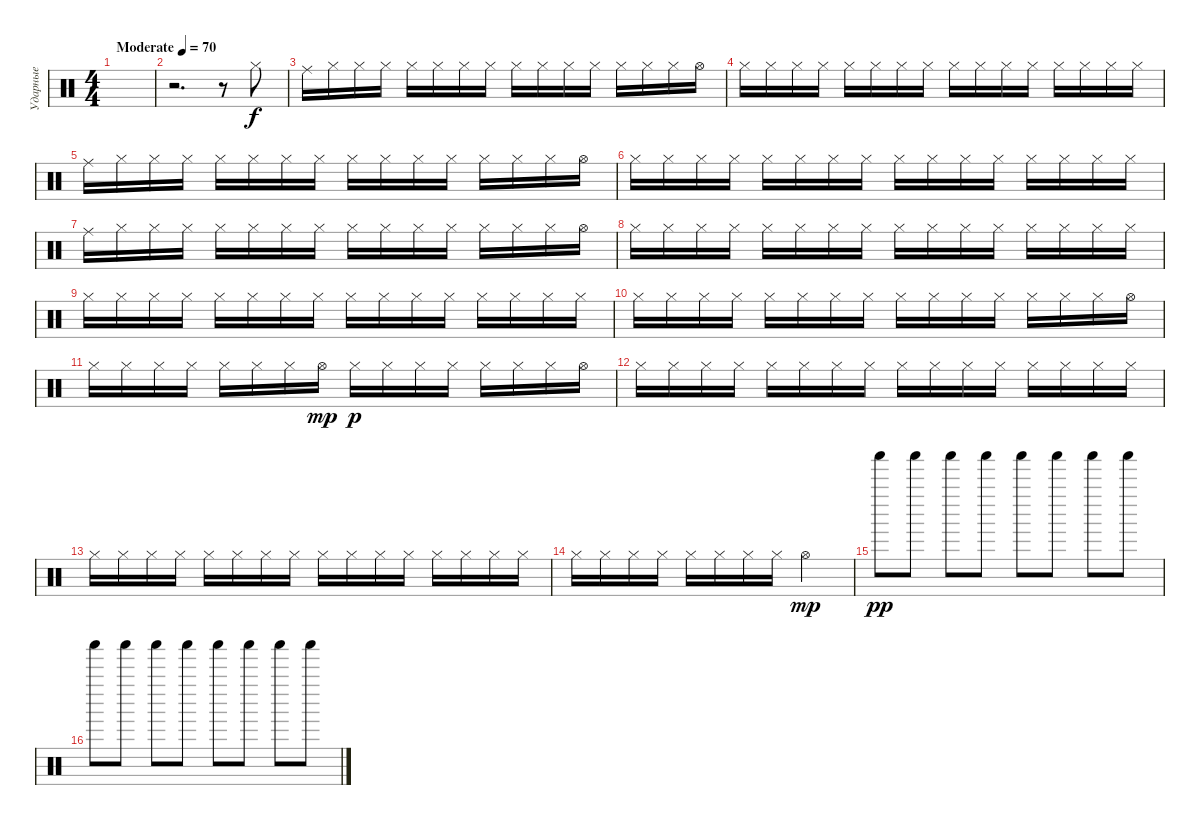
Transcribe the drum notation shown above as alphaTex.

\track ("Ударные" "Ударные") {instrument percussion}
\staff {score}
\articulation defaults
\ts (4 4)
\tempo (70 "Moderate")
\clef neutral
\ks c
|
r.2{d} r.8 "Hi-Hat (closed)".8 |
"Ride (middle)".16 "Hi-Hat (closed)".16 "Hi-Hat (closed)".16 "Hi-Hat (closed)".16 "Hi-Hat (closed)".16 "Hi-Hat (closed)".16 "Hi-Hat (closed)".16 "Hi-Hat (closed)".16 "Hi-Hat (closed)".16 "Hi-Hat (closed)".16 "Hi-Hat (closed)".16 "Hi-Hat (closed)".16 "Hi-Hat (closed)".16 "Hi-Hat (closed)".16 "Hi-Hat (closed)".16 "Hi-Hat (open)".16 |
"Hi-Hat (closed)".16 "Hi-Hat (closed)".16 "Hi-Hat (closed)".16 "Hi-Hat (closed)".16 "Hi-Hat (closed)".16 "Hi-Hat (closed)".16 "Hi-Hat (closed)".16 "Hi-Hat (closed)".16 "Hi-Hat (closed)".16 "Hi-Hat (closed)".16 "Hi-Hat (closed)".16 "Hi-Hat (closed)".16 "Hi-Hat (closed)".16 "Hi-Hat (closed)".16 "Hi-Hat (closed)".16 "Hi-Hat (closed)".16 |
"Ride (middle)".16 "Hi-Hat (closed)".16 "Hi-Hat (closed)".16 "Hi-Hat (closed)".16 "Hi-Hat (closed)".16 "Hi-Hat (closed)".16 "Hi-Hat (closed)".16 "Hi-Hat (closed)".16 "Hi-Hat (closed)".16 "Hi-Hat (closed)".16 "Hi-Hat (closed)".16 "Hi-Hat (closed)".16 "Hi-Hat (closed)".16 "Hi-Hat (closed)".16 "Hi-Hat (closed)".16 "Hi-Hat (open)".16 |
"Hi-Hat (closed)".16 "Hi-Hat (closed)".16 "Hi-Hat (closed)".16 "Hi-Hat (closed)".16 "Hi-Hat (closed)".16 "Hi-Hat (closed)".16 "Hi-Hat (closed)".16 "Hi-Hat (closed)".16 "Hi-Hat (closed)".16 "Hi-Hat (closed)".16 "Hi-Hat (closed)".16 "Hi-Hat (closed)".16 "Hi-Hat (closed)".16 "Hi-Hat (closed)".16 "Hi-Hat (closed)".16 "Hi-Hat (closed)".16 |
"Ride (middle)".16 "Hi-Hat (closed)".16 "Hi-Hat (closed)".16 "Hi-Hat (closed)".16 "Hi-Hat (closed)".16 "Hi-Hat (closed)".16 "Hi-Hat (closed)".16 "Hi-Hat (closed)".16 "Hi-Hat (closed)".16 "Hi-Hat (closed)".16 "Hi-Hat (closed)".16 "Hi-Hat (closed)".16 "Hi-Hat (closed)".16 "Hi-Hat (closed)".16 "Hi-Hat (closed)".16 "Hi-Hat (open)".16 |
"Hi-Hat (closed)".16 "Hi-Hat (closed)".16 "Hi-Hat (closed)".16 "Hi-Hat (closed)".16 "Hi-Hat (closed)".16 "Hi-Hat (closed)".16 "Hi-Hat (closed)".16 "Hi-Hat (closed)".16 "Hi-Hat (closed)".16 "Hi-Hat (closed)".16 "Hi-Hat (closed)".16 "Hi-Hat (closed)".16 "Hi-Hat (closed)".16 "Hi-Hat (closed)".16 "Hi-Hat (closed)".16 "Hi-Hat (closed)".16 |
"Hi-Hat (closed)".16 "Hi-Hat (closed)".16 "Hi-Hat (closed)".16 "Hi-Hat (closed)".16 "Hi-Hat (closed)".16 "Hi-Hat (closed)".16 "Hi-Hat (closed)".16 "Hi-Hat (closed)".16 "Hi-Hat (closed)".16 "Hi-Hat (closed)".16 "Hi-Hat (closed)".16 "Hi-Hat (closed)".16 "Hi-Hat (closed)".16 "Hi-Hat (closed)".16 "Hi-Hat (closed)".16 "Hi-Hat (closed)".16 |
"Hi-Hat (closed)".16 "Hi-Hat (closed)".16 "Hi-Hat (closed)".16 "Hi-Hat (closed)".16 "Hi-Hat (closed)".16 "Hi-Hat (closed)".16 "Hi-Hat (closed)".16 "Hi-Hat (closed)".16 "Hi-Hat (closed)".16 "Hi-Hat (closed)".16 "Hi-Hat (closed)".16 "Hi-Hat (closed)".16 "Hi-Hat (closed)".16 "Hi-Hat (closed)".16 "Hi-Hat (closed)".16 "Hi-Hat (open)".16 |
"Hi-Hat (closed)".16 "Hi-Hat (closed)".16 "Hi-Hat (closed)".16 "Hi-Hat (closed)".16 "Hi-Hat (closed)".16 "Hi-Hat (closed)".16 "Hi-Hat (closed)".16 "Hi-Hat (open)".16{dy mp} "Hi-Hat (closed)".16{dy p} "Hi-Hat (closed)".16 "Hi-Hat (closed)".16 "Hi-Hat (closed)".16 "Hi-Hat (closed)".16 "Hi-Hat (closed)".16 "Hi-Hat (closed)".16 "Hi-Hat (open)".16 |
"Hi-Hat (closed)".16 "Hi-Hat (closed)".16 "Hi-Hat (closed)".16 "Hi-Hat (closed)".16 "Hi-Hat (closed)".16 "Hi-Hat (closed)".16 "Hi-Hat (closed)".16 "Hi-Hat (closed)".16 "Hi-Hat (closed)".16 "Hi-Hat (closed)".16 "Hi-Hat (closed)".16 "Hi-Hat (closed)".16 "Hi-Hat (closed)".16 "Hi-Hat (closed)".16 "Hi-Hat (closed)".16 "Hi-Hat (closed)".16 |
"Hi-Hat (closed)".16 "Hi-Hat (closed)".16 "Hi-Hat (closed)".16 "Hi-Hat (closed)".16 "Hi-Hat (closed)".16 "Hi-Hat (closed)".16 "Hi-Hat (closed)".16 "Hi-Hat (closed)".16 "Hi-Hat (closed)".16 "Hi-Hat (closed)".16 "Hi-Hat (closed)".16 "Hi-Hat (closed)".16 "Hi-Hat (closed)".16 "Hi-Hat (closed)".16 "Hi-Hat (closed)".16 "Hi-Hat (closed)".16 |
"Hi-Hat (closed)".16 "Hi-Hat (closed)".16 "Hi-Hat (closed)".16 "Hi-Hat (closed)".16 "Hi-Hat (closed)".16 "Hi-Hat (closed)".16 "Hi-Hat (closed)".16 "Hi-Hat (closed)".16 "Hi-Hat (open)".2{dy mp} |
"Shaker (hit)".8{dy pp} "Shaker (hit)".8 "Shaker (hit)".8 "Shaker (hit)".8 "Shaker (hit)".8 "Shaker (hit)".8 "Shaker (hit)".8 "Shaker (hit)".8 |
"Shaker (hit)".8 "Shaker (hit)".8 "Shaker (hit)".8 "Shaker (hit)".8 "Shaker (hit)".8 "Shaker (hit)".8 "Shaker (hit)".8 "Shaker (hit)".8
